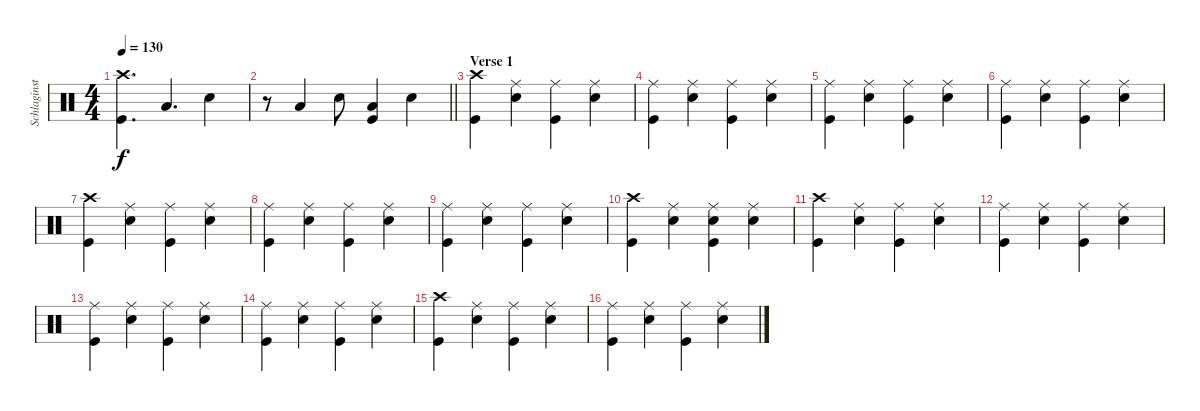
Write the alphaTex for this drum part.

\track ("Schlaginstrumente - Auswahl" "Schlaginst") {instrument percussion}
\staff {score}
\articulation defaults
\ts (4 4)
\tempo 130
\clef neutral
\ks c
("Crash high (hit)" "Kick (hit)").4{d dy f} "Low Floor Tom (hit)".4{d} "Snare (hit) 2".4 |
\barLineRight lightlight
r.8 "Low Floor Tom (hit)".4 "Snare (hit) 2".8 ("Kick (hit)" "Low Floor Tom (hit)").4 "Snare (hit) 2".4 |
\section ("" "Verse 1")
("Crash high (hit)" "Kick (hit)").4 ("Ride (middle)" "Snare (hit) 2").4 ("Ride (middle)" "Kick (hit)").4 ("Ride (middle)" "Snare (hit) 2").4 |
("Ride (middle)" "Kick (hit)").4 ("Ride (middle)" "Snare (hit) 2").4 ("Ride (middle)" "Kick (hit)").4 ("Ride (middle)" "Snare (hit) 2").4 |
("Ride (middle)" "Kick (hit)").4 ("Ride (middle)" "Snare (hit) 2").4 ("Ride (middle)" "Kick (hit)").4 ("Ride (middle)" "Snare (hit) 2").4 |
("Ride (middle)" "Kick (hit)").4 ("Ride (middle)" "Snare (hit) 2").4 ("Ride (middle)" "Kick (hit)").4 ("Ride (middle)" "Snare (hit) 2").4 |
("Crash high (hit)" "Kick (hit)").4 ("Ride (middle)" "Snare (hit) 2").4 ("Ride (middle)" "Kick (hit)").4 ("Ride (middle)" "Snare (hit) 2").4 |
("Ride (middle)" "Kick (hit)").4 ("Ride (middle)" "Snare (hit) 2").4 ("Ride (middle)" "Kick (hit)").4 ("Ride (middle)" "Snare (hit) 2").4 |
("Ride (middle)" "Kick (hit)").4 ("Ride (middle)" "Snare (hit) 2").4 ("Ride (middle)" "Kick (hit)").4 ("Ride (middle)" "Snare (hit) 2").4 |
("Crash high (hit)" "Kick (hit)").4 ("Ride (middle)" "Snare (hit) 2").4 ("Ride (middle)" "Kick (hit)" "Snare (hit) 2").4 ("Ride (middle)" "Snare (hit) 2").4 |
("Crash high (hit)" "Kick (hit)").4 ("Ride (middle)" "Snare (hit) 2").4 ("Ride (middle)" "Kick (hit)").4 ("Ride (middle)" "Snare (hit) 2").4 |
("Ride (middle)" "Kick (hit)").4 ("Ride (middle)" "Snare (hit) 2").4 ("Ride (middle)" "Kick (hit)").4 ("Ride (middle)" "Snare (hit) 2").4 |
("Ride (middle)" "Kick (hit)").4 ("Ride (middle)" "Snare (hit) 2").4 ("Ride (middle)" "Kick (hit)").4 ("Ride (middle)" "Snare (hit) 2").4 |
("Ride (middle)" "Kick (hit)").4 ("Ride (middle)" "Snare (hit) 2").4 ("Ride (middle)" "Kick (hit)").4 ("Ride (middle)" "Snare (hit) 2").4 |
("Crash high (hit)" "Kick (hit)").4 ("Ride (middle)" "Snare (hit) 2").4 ("Ride (middle)" "Kick (hit)").4 ("Ride (middle)" "Snare (hit) 2").4 |
("Ride (middle)" "Kick (hit)").4 ("Ride (middle)" "Snare (hit) 2").4 ("Ride (middle)" "Kick (hit)").4 ("Ride (middle)" "Snare (hit) 2").4
